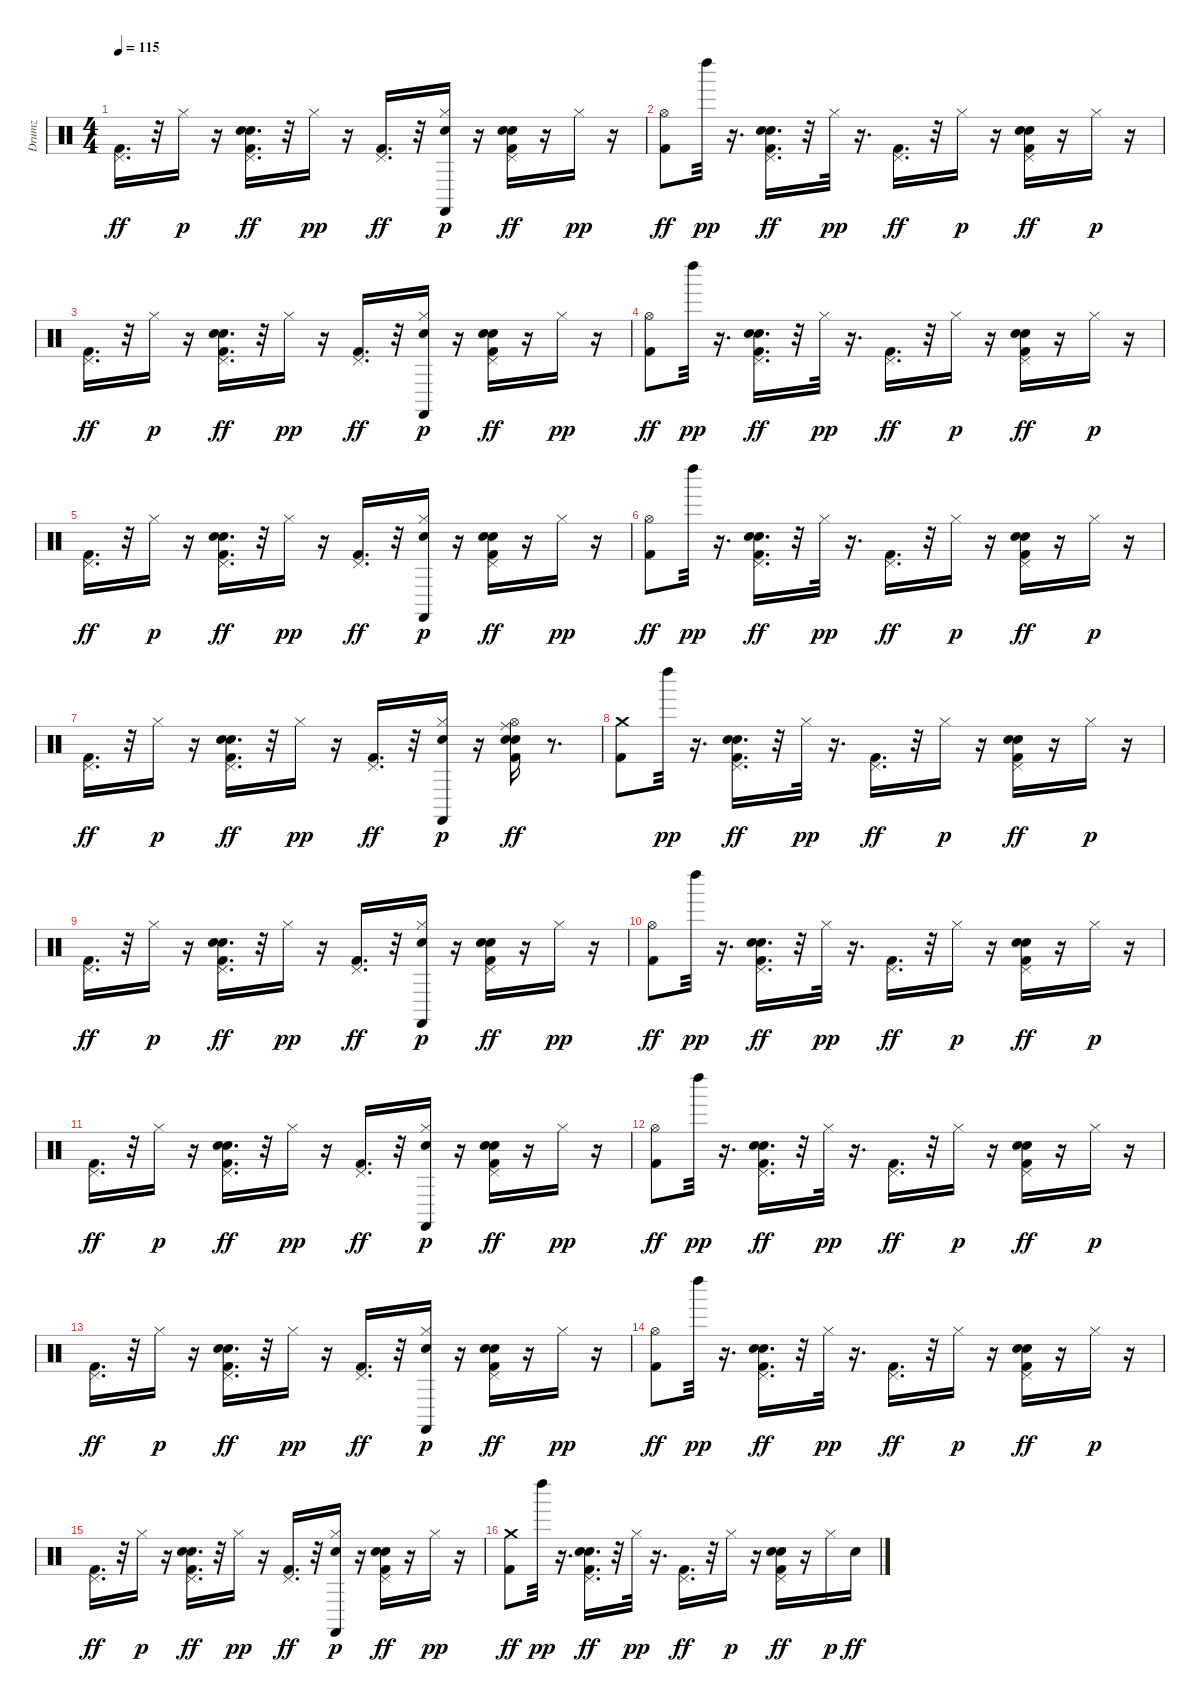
\track ("Drumz" "Drumz") {instrument percussion}
\staff {score}
\articulation defaults
\ts (4 4)
\tempo 115
\clef neutral
\ks c
("Kick (hit) 2" "Pedal Hi-Hat (hit)").16{d dy ff} r.32 "Hi-Hat (closed)".16{dy p} r.16 ("Kick (hit) 2" "Pedal Hi-Hat (hit)" "Hand Clap (hit)" "Electric Snare (hit)").16{d dy ff} r.32 "Hi-Hat (closed)".16{dy pp} r.16 ("Pedal Hi-Hat (hit)" "Kick (hit) 2").16{d dy ff} r.32 ("Hi-Hat (closed)" "Castanets (hit)" "Hand Clap (hit)").16{dy p} r.16 ("Pedal Hi-Hat (hit)" "Kick (hit) 2" "Hand Clap (hit)" "Electric Snare (hit)").16{dy ff} r.16 "Hi-Hat (closed)".16{dy pp} r.16 |
("Hi-Hat (open)" "Kick (hit) 2").8{dy ff} "Left Maraca (hit)".32{dy pp} r.16{d} ("Pedal Hi-Hat (hit)" "Kick (hit) 2" "Hand Clap (hit)" "Electric Snare (hit)").16{d dy ff} r.32 "Hi-Hat (closed)".32{dy pp} r.16{d} ("Pedal Hi-Hat (hit)" "Kick (hit) 2").16{d dy ff} r.32 "Hi-Hat (closed)".16{dy p} r.16 ("Pedal Hi-Hat (hit)" "Kick (hit) 2" "Electric Snare (hit)" "Hand Clap (hit)").16{dy ff} r.16 "Hi-Hat (closed)".16{dy p} r.16 |
("Kick (hit) 2" "Pedal Hi-Hat (hit)").16{d dy ff} r.32 "Hi-Hat (closed)".16{dy p} r.16 ("Kick (hit) 2" "Pedal Hi-Hat (hit)" "Hand Clap (hit)" "Electric Snare (hit)").16{d dy ff} r.32 "Hi-Hat (closed)".16{dy pp} r.16 ("Pedal Hi-Hat (hit)" "Kick (hit) 2").16{d dy ff} r.32 ("Hi-Hat (closed)" "Castanets (hit)" "Hand Clap (hit)").16{dy p} r.16 ("Pedal Hi-Hat (hit)" "Kick (hit) 2" "Hand Clap (hit)" "Electric Snare (hit)").16{dy ff} r.16 "Hi-Hat (closed)".16{dy pp} r.16 |
("Hi-Hat (open)" "Kick (hit) 2").8{dy ff} "Left Maraca (hit)".32{dy pp} r.16{d} ("Pedal Hi-Hat (hit)" "Kick (hit) 2" "Hand Clap (hit)" "Electric Snare (hit)").16{d dy ff} r.32 "Hi-Hat (closed)".32{dy pp} r.16{d} ("Pedal Hi-Hat (hit)" "Kick (hit) 2").16{d dy ff} r.32 "Hi-Hat (closed)".16{dy p} r.16 ("Pedal Hi-Hat (hit)" "Kick (hit) 2" "Electric Snare (hit)" "Hand Clap (hit)").16{dy ff} r.16 "Hi-Hat (closed)".16{dy p} r.16 |
("Kick (hit) 2" "Pedal Hi-Hat (hit)").16{d dy ff} r.32 "Hi-Hat (closed)".16{dy p} r.16 ("Kick (hit) 2" "Pedal Hi-Hat (hit)" "Hand Clap (hit)" "Electric Snare (hit)").16{d dy ff} r.32 "Hi-Hat (closed)".16{dy pp} r.16 ("Pedal Hi-Hat (hit)" "Kick (hit) 2").16{d dy ff} r.32 ("Hi-Hat (closed)" "Castanets (hit)" "Hand Clap (hit)").16{dy p} r.16 ("Pedal Hi-Hat (hit)" "Kick (hit) 2" "Hand Clap (hit)" "Electric Snare (hit)").16{dy ff} r.16 "Hi-Hat (closed)".16{dy pp} r.16 |
("Hi-Hat (open)" "Kick (hit) 2").8{dy ff} "Left Maraca (hit)".32{dy pp} r.16{d} ("Pedal Hi-Hat (hit)" "Kick (hit) 2" "Hand Clap (hit)" "Electric Snare (hit)").16{d dy ff} r.32 "Hi-Hat (closed)".32{dy pp} r.16{d} ("Pedal Hi-Hat (hit)" "Kick (hit) 2").16{d dy ff} r.32 "Hi-Hat (closed)".16{dy p} r.16 ("Pedal Hi-Hat (hit)" "Kick (hit) 2" "Electric Snare (hit)" "Hand Clap (hit)").16{dy ff} r.16 "Hi-Hat (closed)".16{dy p} r.16 |
("Kick (hit) 2" "Pedal Hi-Hat (hit)").16{d dy ff} r.32 "Hi-Hat (closed)".16{dy p} r.16 ("Kick (hit) 2" "Pedal Hi-Hat (hit)" "Hand Clap (hit)" "Electric Snare (hit)").16{d dy ff} r.32 "Hi-Hat (closed)".16{dy pp} r.16 ("Pedal Hi-Hat (hit)" "Kick (hit) 2").16{d dy ff} r.32 ("Hi-Hat (closed)" "Castanets (hit)" "Hand Clap (hit)").16{dy p} r.16 ("Hi-Hat (open)" "Ride (middle)" "Kick (hit) 2" "Hand Clap (hit)" "Electric Snare (hit)").16{dy ff} r.8{d} |
("Crash medium (hit)" "Kick (hit) 2").8 "Left Maraca (hit)".32{dy pp} r.16{d} ("Pedal Hi-Hat (hit)" "Kick (hit) 2" "Hand Clap (hit)" "Electric Snare (hit)").16{d dy ff} r.32 "Hi-Hat (closed)".32{dy pp} r.16{d} ("Pedal Hi-Hat (hit)" "Kick (hit) 2").16{d dy ff} r.32 "Hi-Hat (closed)".16{dy p} r.16 ("Pedal Hi-Hat (hit)" "Kick (hit) 2" "Electric Snare (hit)" "Hand Clap (hit)").16{dy ff} r.16 "Hi-Hat (closed)".16{dy p} r.16 |
("Kick (hit) 2" "Pedal Hi-Hat (hit)").16{d dy ff} r.32 "Hi-Hat (closed)".16{dy p} r.16 ("Kick (hit) 2" "Pedal Hi-Hat (hit)" "Hand Clap (hit)" "Electric Snare (hit)").16{d dy ff} r.32 "Hi-Hat (closed)".16{dy pp} r.16 ("Pedal Hi-Hat (hit)" "Kick (hit) 2").16{d dy ff} r.32 ("Hi-Hat (closed)" "Castanets (hit)" "Hand Clap (hit)").16{dy p} r.16 ("Pedal Hi-Hat (hit)" "Kick (hit) 2" "Hand Clap (hit)" "Electric Snare (hit)").16{dy ff} r.16 "Hi-Hat (closed)".16{dy pp} r.16 |
("Hi-Hat (open)" "Kick (hit) 2").8{dy ff} "Left Maraca (hit)".32{dy pp} r.16{d} ("Pedal Hi-Hat (hit)" "Kick (hit) 2" "Hand Clap (hit)" "Electric Snare (hit)").16{d dy ff} r.32 "Hi-Hat (closed)".32{dy pp} r.16{d} ("Pedal Hi-Hat (hit)" "Kick (hit) 2").16{d dy ff} r.32 "Hi-Hat (closed)".16{dy p} r.16 ("Pedal Hi-Hat (hit)" "Kick (hit) 2" "Electric Snare (hit)" "Hand Clap (hit)").16{dy ff} r.16 "Hi-Hat (closed)".16{dy p} r.16 |
("Kick (hit) 2" "Pedal Hi-Hat (hit)").16{d dy ff} r.32 "Hi-Hat (closed)".16{dy p} r.16 ("Kick (hit) 2" "Pedal Hi-Hat (hit)" "Hand Clap (hit)" "Electric Snare (hit)").16{d dy ff} r.32 "Hi-Hat (closed)".16{dy pp} r.16 ("Pedal Hi-Hat (hit)" "Kick (hit) 2").16{d dy ff} r.32 ("Hi-Hat (closed)" "Castanets (hit)" "Hand Clap (hit)").16{dy p} r.16 ("Pedal Hi-Hat (hit)" "Kick (hit) 2" "Hand Clap (hit)" "Electric Snare (hit)").16{dy ff} r.16 "Hi-Hat (closed)".16{dy pp} r.16 |
("Hi-Hat (open)" "Kick (hit) 2").8{dy ff} "Left Maraca (hit)".32{dy pp} r.16{d} ("Pedal Hi-Hat (hit)" "Kick (hit) 2" "Hand Clap (hit)" "Electric Snare (hit)").16{d dy ff} r.32 "Hi-Hat (closed)".32{dy pp} r.16{d} ("Pedal Hi-Hat (hit)" "Kick (hit) 2").16{d dy ff} r.32 "Hi-Hat (closed)".16{dy p} r.16 ("Pedal Hi-Hat (hit)" "Kick (hit) 2" "Electric Snare (hit)" "Hand Clap (hit)").16{dy ff} r.16 "Hi-Hat (closed)".16{dy p} r.16 |
("Kick (hit) 2" "Pedal Hi-Hat (hit)").16{d dy ff} r.32 "Hi-Hat (closed)".16{dy p} r.16 ("Kick (hit) 2" "Pedal Hi-Hat (hit)" "Hand Clap (hit)" "Electric Snare (hit)").16{d dy ff} r.32 "Hi-Hat (closed)".16{dy pp} r.16 ("Pedal Hi-Hat (hit)" "Kick (hit) 2").16{d dy ff} r.32 ("Hi-Hat (closed)" "Castanets (hit)" "Hand Clap (hit)").16{dy p} r.16 ("Pedal Hi-Hat (hit)" "Kick (hit) 2" "Hand Clap (hit)" "Electric Snare (hit)").16{dy ff} r.16 "Hi-Hat (closed)".16{dy pp} r.16 |
("Hi-Hat (open)" "Kick (hit) 2").8{dy ff} "Left Maraca (hit)".32{dy pp} r.16{d} ("Pedal Hi-Hat (hit)" "Kick (hit) 2" "Hand Clap (hit)" "Electric Snare (hit)").16{d dy ff} r.32 "Hi-Hat (closed)".32{dy pp} r.16{d} ("Pedal Hi-Hat (hit)" "Kick (hit) 2").16{d dy ff} r.32 "Hi-Hat (closed)".16{dy p} r.16 ("Pedal Hi-Hat (hit)" "Kick (hit) 2" "Electric Snare (hit)" "Hand Clap (hit)").16{dy ff} r.16 "Hi-Hat (closed)".16{dy p} r.16 |
("Kick (hit) 2" "Pedal Hi-Hat (hit)").16{d dy ff} r.32 "Hi-Hat (closed)".16{dy p} r.16 ("Kick (hit) 2" "Pedal Hi-Hat (hit)" "Hand Clap (hit)" "Electric Snare (hit)").16{d dy ff} r.32 "Hi-Hat (closed)".16{dy pp} r.16 ("Pedal Hi-Hat (hit)" "Kick (hit) 2").16{d dy ff} r.32 ("Hi-Hat (closed)" "Castanets (hit)" "Hand Clap (hit)").16{dy p} r.16 ("Pedal Hi-Hat (hit)" "Kick (hit) 2" "Hand Clap (hit)" "Electric Snare (hit)").16{dy ff} r.16 "Hi-Hat (closed)".16{dy pp} r.16 |
("Crash medium (hit)" "Kick (hit) 2").8{dy ff} "Left Maraca (hit)".32{dy pp} r.16{d} ("Pedal Hi-Hat (hit)" "Kick (hit) 2" "Hand Clap (hit)" "Electric Snare (hit)").16{d dy ff} r.32 "Hi-Hat (closed)".32{dy pp} r.16{d} ("Pedal Hi-Hat (hit)" "Kick (hit) 2").16{d dy ff} r.32 "Hi-Hat (closed)".16{dy p} r.16 ("Pedal Hi-Hat (hit)" "Kick (hit) 2" "Electric Snare (hit)" "Hand Clap (hit)").16{dy ff} r.16 "Hi-Hat (closed)".16{dy p} "Electric Snare (hit)".16{dy ff}
